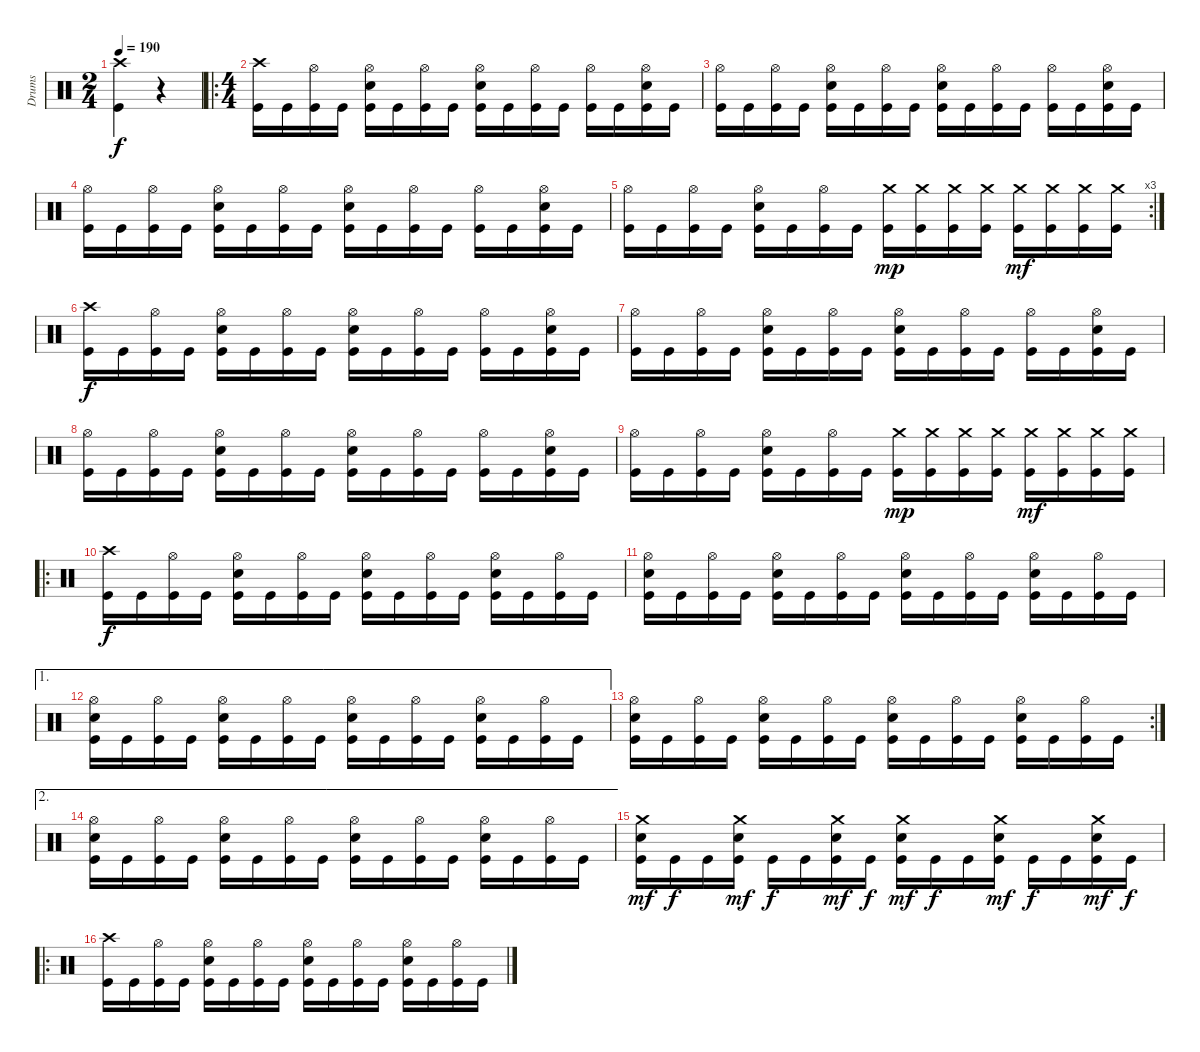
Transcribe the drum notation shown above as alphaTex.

\track ("Drums" "Drums") {instrument percussion}
\staff {score}
\articulation defaults
\ts (2 4)
\tempo 190
\clef neutral
\ks c
("Crash high (hit)" "Kick (hit)").4{dy f} r.4{volume 6} |
\ro
\ts (4 4)
("Crash high (hit)" "Kick (hit)").16{volume 13} "Kick (hit)".16 ("Hi-Hat (open)" "Kick (hit)").16 "Kick (hit)".16 ("Hi-Hat (open)" "Electric Snare (hit)" "Kick (hit)").16 "Kick (hit)".16 ("Hi-Hat (open)" "Kick (hit)").16 "Kick (hit)".16 ("Hi-Hat (open)" "Electric Snare (hit)" "Kick (hit)").16 "Kick (hit)".16 ("Hi-Hat (open)" "Kick (hit)").16 "Kick (hit)".16 ("Hi-Hat (open)" "Kick (hit)").16 "Kick (hit)".16 ("Hi-Hat (open)" "Electric Snare (hit)" "Kick (hit)").16 "Kick (hit)".16 |
("Hi-Hat (open)" "Kick (hit)").16 "Kick (hit)".16 ("Hi-Hat (open)" "Kick (hit)").16 "Kick (hit)".16 ("Hi-Hat (open)" "Electric Snare (hit)" "Kick (hit)").16 "Kick (hit)".16 ("Hi-Hat (open)" "Kick (hit)").16 "Kick (hit)".16 ("Hi-Hat (open)" "Electric Snare (hit)" "Kick (hit)").16 "Kick (hit)".16 ("Hi-Hat (open)" "Kick (hit)").16 "Kick (hit)".16 ("Hi-Hat (open)" "Kick (hit)").16 "Kick (hit)".16 ("Hi-Hat (open)" "Electric Snare (hit)" "Kick (hit)").16 "Kick (hit)".16 |
("Hi-Hat (open)" "Kick (hit)").16 "Kick (hit)".16 ("Hi-Hat (open)" "Kick (hit)").16 "Kick (hit)".16 ("Hi-Hat (open)" "Electric Snare (hit)" "Kick (hit)").16 "Kick (hit)".16 ("Hi-Hat (open)" "Kick (hit)").16 "Kick (hit)".16 ("Hi-Hat (open)" "Electric Snare (hit)" "Kick (hit)").16 "Kick (hit)".16 ("Hi-Hat (open)" "Kick (hit)").16 "Kick (hit)".16 ("Hi-Hat (open)" "Kick (hit)").16 "Kick (hit)".16 ("Hi-Hat (open)" "Electric Snare (hit)" "Kick (hit)").16 "Kick (hit)".16 |
\rc 3
("Hi-Hat (open)" "Kick (hit)").16 "Kick (hit)".16 ("Hi-Hat (open)" "Kick (hit)").16 "Kick (hit)".16 ("Hi-Hat (open)" "Electric Snare (hit)" "Kick (hit)").16 "Kick (hit)".16 ("Hi-Hat (open)" "Kick (hit)").16 "Kick (hit)".16 ("Crash medium (hit)" "Kick (hit)").16{dy mp} ("Crash medium (hit)" "Kick (hit)").16 ("Crash medium (hit)" "Kick (hit)").16 ("Crash medium (hit)" "Kick (hit)").16 ("Crash medium (hit)" "Kick (hit)").16{dy mf} ("Crash medium (hit)" "Kick (hit)").16 ("Crash medium (hit)" "Kick (hit)").16 ("Crash medium (hit)" "Kick (hit)").16 |
("Crash high (hit)" "Kick (hit)").16{dy f} "Kick (hit)".16 ("Hi-Hat (open)" "Kick (hit)").16 "Kick (hit)".16 ("Hi-Hat (open)" "Electric Snare (hit)" "Kick (hit)").16 "Kick (hit)".16 ("Hi-Hat (open)" "Kick (hit)").16 "Kick (hit)".16 ("Hi-Hat (open)" "Electric Snare (hit)" "Kick (hit)").16 "Kick (hit)".16 ("Hi-Hat (open)" "Kick (hit)").16 "Kick (hit)".16 ("Hi-Hat (open)" "Kick (hit)").16 "Kick (hit)".16 ("Hi-Hat (open)" "Electric Snare (hit)" "Kick (hit)").16 "Kick (hit)".16 |
("Hi-Hat (open)" "Kick (hit)").16 "Kick (hit)".16 ("Hi-Hat (open)" "Kick (hit)").16 "Kick (hit)".16 ("Hi-Hat (open)" "Electric Snare (hit)" "Kick (hit)").16 "Kick (hit)".16 ("Hi-Hat (open)" "Kick (hit)").16 "Kick (hit)".16 ("Hi-Hat (open)" "Electric Snare (hit)" "Kick (hit)").16 "Kick (hit)".16 ("Hi-Hat (open)" "Kick (hit)").16 "Kick (hit)".16 ("Hi-Hat (open)" "Kick (hit)").16 "Kick (hit)".16 ("Hi-Hat (open)" "Electric Snare (hit)" "Kick (hit)").16 "Kick (hit)".16 |
("Hi-Hat (open)" "Kick (hit)").16 "Kick (hit)".16 ("Hi-Hat (open)" "Kick (hit)").16 "Kick (hit)".16 ("Hi-Hat (open)" "Electric Snare (hit)" "Kick (hit)").16 "Kick (hit)".16 ("Hi-Hat (open)" "Kick (hit)").16 "Kick (hit)".16 ("Hi-Hat (open)" "Electric Snare (hit)" "Kick (hit)").16 "Kick (hit)".16 ("Hi-Hat (open)" "Kick (hit)").16 "Kick (hit)".16 ("Hi-Hat (open)" "Kick (hit)").16 "Kick (hit)".16 ("Hi-Hat (open)" "Electric Snare (hit)" "Kick (hit)").16 "Kick (hit)".16 |
("Hi-Hat (open)" "Kick (hit)").16 "Kick (hit)".16 ("Hi-Hat (open)" "Kick (hit)").16 "Kick (hit)".16 ("Hi-Hat (open)" "Electric Snare (hit)" "Kick (hit)").16 "Kick (hit)".16 ("Hi-Hat (open)" "Kick (hit)").16 "Kick (hit)".16 ("Crash medium (hit)" "Kick (hit)").16{dy mp} ("Crash medium (hit)" "Kick (hit)").16 ("Crash medium (hit)" "Kick (hit)").16 ("Crash medium (hit)" "Kick (hit)").16 ("Crash medium (hit)" "Kick (hit)").16{dy mf} ("Crash medium (hit)" "Kick (hit)").16 ("Crash medium (hit)" "Kick (hit)").16 ("Crash medium (hit)" "Kick (hit)").16 |
\ro
("Crash high (hit)" "Kick (hit)").16{dy f} "Kick (hit)".16 ("Hi-Hat (open)" "Kick (hit)").16 "Kick (hit)".16 ("Hi-Hat (open)" "Electric Snare (hit)" "Kick (hit)").16 "Kick (hit)".16 ("Hi-Hat (open)" "Kick (hit)").16 "Kick (hit)".16 ("Hi-Hat (open)" "Electric Snare (hit)" "Kick (hit)").16 "Kick (hit)".16 ("Hi-Hat (open)" "Kick (hit)").16 "Kick (hit)".16 ("Hi-Hat (open)" "Electric Snare (hit)" "Kick (hit)").16 "Kick (hit)".16 ("Hi-Hat (open)" "Kick (hit)").16 "Kick (hit)".16 |
("Hi-Hat (open)" "Electric Snare (hit)" "Kick (hit)").16 "Kick (hit)".16 ("Hi-Hat (open)" "Kick (hit)").16 "Kick (hit)".16 ("Hi-Hat (open)" "Electric Snare (hit)" "Kick (hit)").16 "Kick (hit)".16 ("Hi-Hat (open)" "Kick (hit)").16 "Kick (hit)".16 ("Hi-Hat (open)" "Electric Snare (hit)" "Kick (hit)").16 "Kick (hit)".16 ("Hi-Hat (open)" "Kick (hit)").16 "Kick (hit)".16 ("Hi-Hat (open)" "Electric Snare (hit)" "Kick (hit)").16 "Kick (hit)".16 ("Hi-Hat (open)" "Kick (hit)").16 "Kick (hit)".16 |
\ae 1
("Hi-Hat (open)" "Electric Snare (hit)" "Kick (hit)").16 "Kick (hit)".16 ("Hi-Hat (open)" "Kick (hit)").16 "Kick (hit)".16 ("Hi-Hat (open)" "Electric Snare (hit)" "Kick (hit)").16 "Kick (hit)".16 ("Hi-Hat (open)" "Kick (hit)").16 "Kick (hit)".16 ("Hi-Hat (open)" "Electric Snare (hit)" "Kick (hit)").16 "Kick (hit)".16 ("Hi-Hat (open)" "Kick (hit)").16 "Kick (hit)".16 ("Hi-Hat (open)" "Electric Snare (hit)" "Kick (hit)").16 "Kick (hit)".16 ("Hi-Hat (open)" "Kick (hit)").16 "Kick (hit)".16 |
\rc 2
("Hi-Hat (open)" "Electric Snare (hit)" "Kick (hit)").16 "Kick (hit)".16 ("Hi-Hat (open)" "Kick (hit)").16 "Kick (hit)".16 ("Hi-Hat (open)" "Electric Snare (hit)" "Kick (hit)").16 "Kick (hit)".16 ("Hi-Hat (open)" "Kick (hit)").16 "Kick (hit)".16 ("Hi-Hat (open)" "Electric Snare (hit)" "Kick (hit)").16 "Kick (hit)".16 ("Hi-Hat (open)" "Kick (hit)").16 "Kick (hit)".16 ("Hi-Hat (open)" "Electric Snare (hit)" "Kick (hit)").16 "Kick (hit)".16 ("Hi-Hat (open)" "Kick (hit)").16 "Kick (hit)".16 |
\ae 2
("Hi-Hat (open)" "Electric Snare (hit)" "Kick (hit)").16 "Kick (hit)".16 ("Hi-Hat (open)" "Kick (hit)").16 "Kick (hit)".16 ("Hi-Hat (open)" "Electric Snare (hit)" "Kick (hit)").16 "Kick (hit)".16 ("Hi-Hat (open)" "Kick (hit)").16 "Kick (hit)".16 ("Hi-Hat (open)" "Electric Snare (hit)" "Kick (hit)").16 "Kick (hit)".16 ("Hi-Hat (open)" "Kick (hit)").16 "Kick (hit)".16 ("Hi-Hat (open)" "Electric Snare (hit)" "Kick (hit)").16 "Kick (hit)".16 ("Hi-Hat (open)" "Kick (hit)").16 "Kick (hit)".16 |
("Crash medium (hit)" "Electric Snare (hit)" "Kick (hit)").16{dy mf} "Kick (hit)".16{dy f} "Kick (hit)".16 ("Crash medium (hit)" "Electric Snare (hit)" "Kick (hit)").16{dy mf} "Kick (hit)".16{dy f} "Kick (hit)".16 ("Crash medium (hit)" "Electric Snare (hit)" "Kick (hit)").16{dy mf} "Kick (hit)".16{dy f} ("Crash medium (hit)" "Electric Snare (hit)" "Kick (hit)").16{dy mf} "Kick (hit)".16{dy f} "Kick (hit)".16 ("Crash medium (hit)" "Electric Snare (hit)" "Kick (hit)").16{dy mf} "Kick (hit)".16{dy f} "Kick (hit)".16 ("Crash medium (hit)" "Electric Snare (hit)" "Kick (hit)").16{dy mf} "Kick (hit)".16{dy f} |
\ro
("Crash high (hit)" "Kick (hit)").16 "Kick (hit)".16 ("Hi-Hat (open)" "Kick (hit)").16 "Kick (hit)".16 ("Hi-Hat (open)" "Electric Snare (hit)" "Kick (hit)").16 "Kick (hit)".16 ("Hi-Hat (open)" "Kick (hit)").16 "Kick (hit)".16 ("Hi-Hat (open)" "Electric Snare (hit)" "Kick (hit)").16 "Kick (hit)".16 ("Hi-Hat (open)" "Kick (hit)").16 "Kick (hit)".16 ("Hi-Hat (open)" "Electric Snare (hit)" "Kick (hit)").16 "Kick (hit)".16 ("Hi-Hat (open)" "Kick (hit)").16 "Kick (hit)".16
